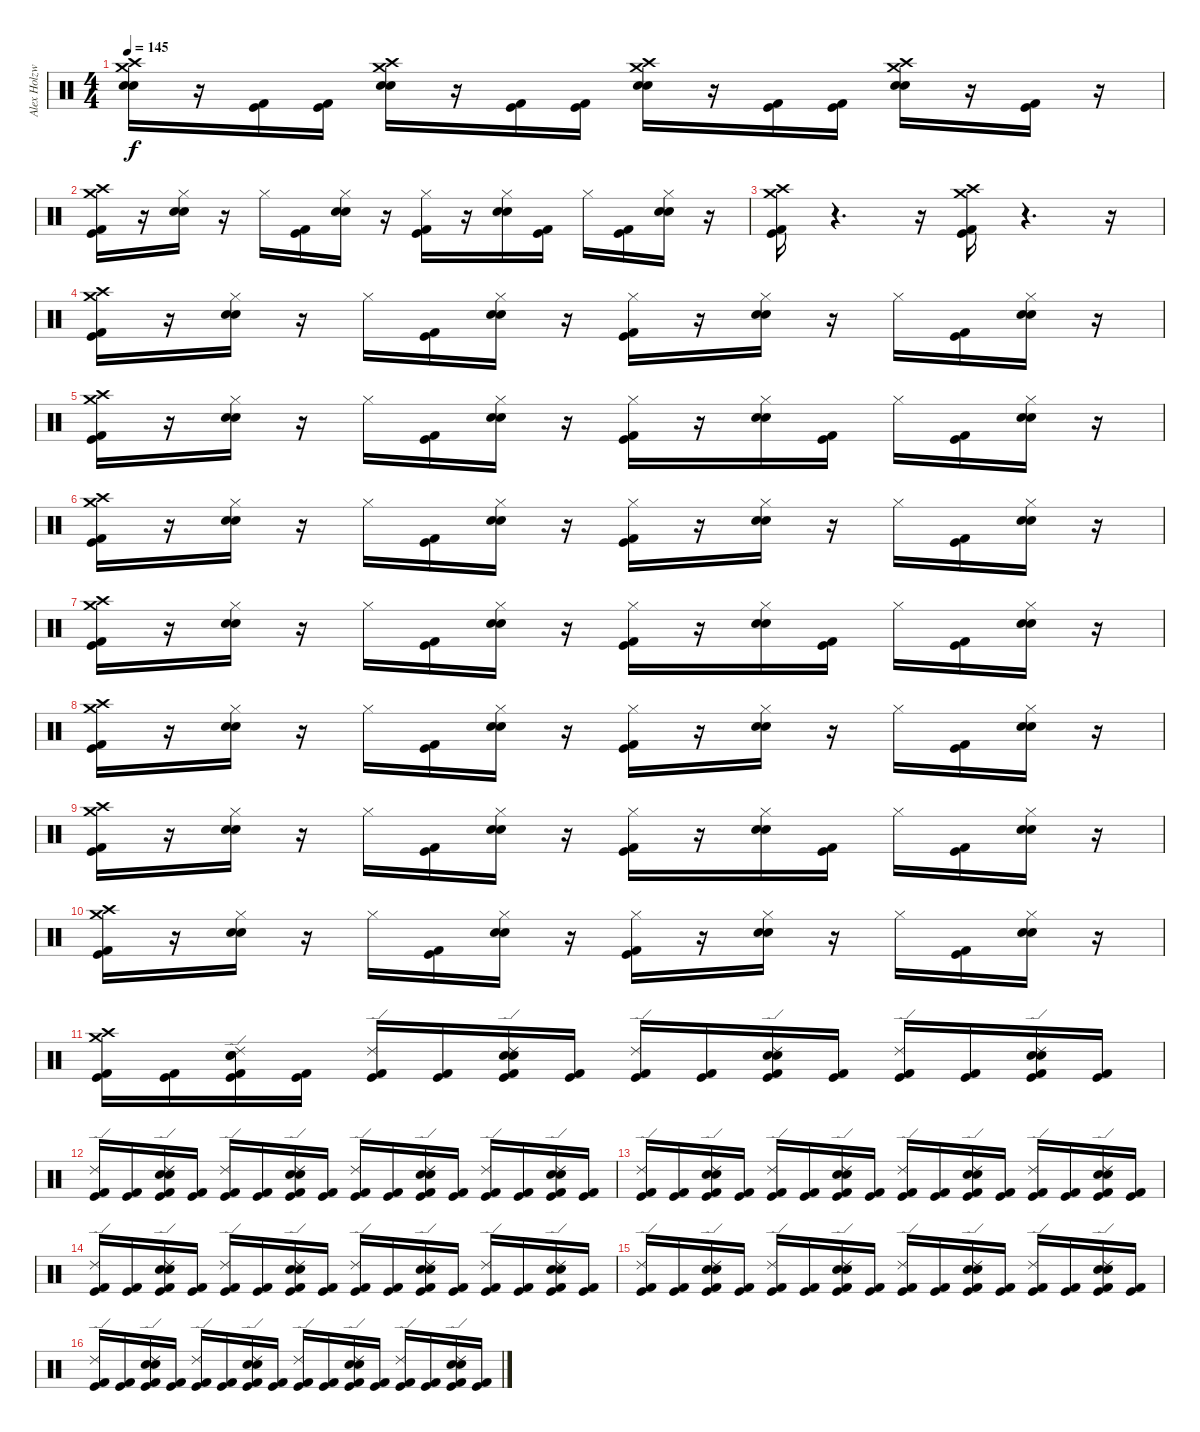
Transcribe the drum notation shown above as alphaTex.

\track ("Alex Holzwarth" "Alex Holzw") {instrument percussion}
\staff {score}
\articulation defaults
\ts (4 4)
\tempo 145
\clef neutral
\ks c
("Crash medium (hit)" "Crash high (hit)" "Electric Snare (hit)" "Snare (hit) 2").16{dy f} r.16 ("Kick (hit) 2" "Kick (hit)").16 ("Kick (hit) 2" "Kick (hit)").16 ("Crash medium (hit)" "Crash high (hit)" "Electric Snare (hit)" "Snare (hit) 2").16 r.16 ("Kick (hit) 2" "Kick (hit)").16 ("Kick (hit) 2" "Kick (hit)").16 ("Crash high (hit)" "Crash medium (hit)" "Electric Snare (hit)" "Snare (hit) 2").16 r.16 ("Kick (hit) 2" "Kick (hit)").16 ("Kick (hit) 2" "Kick (hit)").16 ("Crash high (hit)" "Crash medium (hit)" "Electric Snare (hit)" "Snare (hit) 2").16 r.16 ("Kick (hit) 2" "Kick (hit)").16 r.16 |
("Crash high (hit)" "Crash medium (hit)" "Kick (hit) 2" "Kick (hit)").16 r.16 ("Hi-Hat (closed)" "Electric Snare (hit)" "Snare (hit) 2").16 r.16 "Hi-Hat (closed)".16 ("Kick (hit) 2" "Kick (hit)").16 ("Electric Snare (hit)" "Snare (hit) 2" "Hi-Hat (closed)").16 r.16 ("Hi-Hat (closed)" "Kick (hit)" "Kick (hit) 2").16 r.16 ("Hi-Hat (closed)" "Electric Snare (hit)" "Snare (hit) 2").16 ("Kick (hit) 2" "Kick (hit)").16 "Hi-Hat (closed)".16 ("Kick (hit) 2" "Kick (hit)").16 ("Hi-Hat (closed)" "Electric Snare (hit)" "Snare (hit) 2").16 r.16 |
("Kick (hit) 2" "Kick (hit)" "Crash medium (hit)" "Crash high (hit)").16 r.4{d} r.16 ("Crash medium (hit)" "Crash high (hit)" "Kick (hit) 2" "Kick (hit)").16 r.4{d} r.16 |
("Crash high (hit)" "Crash medium (hit)" "Kick (hit) 2" "Kick (hit)").16 r.16 ("Hi-Hat (closed)" "Electric Snare (hit)" "Snare (hit) 2").16 r.16 "Hi-Hat (closed)".16 ("Kick (hit) 2" "Kick (hit)").16 ("Hi-Hat (closed)" "Electric Snare (hit)" "Snare (hit) 2").16 r.16 ("Hi-Hat (closed)" "Kick (hit) 2" "Kick (hit)").16 r.16 ("Hi-Hat (closed)" "Electric Snare (hit)" "Snare (hit) 2").16 r.16 "Hi-Hat (closed)".16 ("Kick (hit) 2" "Kick (hit)").16 ("Hi-Hat (closed)" "Electric Snare (hit)" "Snare (hit) 2").16 r.16 |
("Crash high (hit)" "Crash medium (hit)" "Kick (hit) 2" "Kick (hit)").16 r.16 ("Hi-Hat (closed)" "Electric Snare (hit)" "Snare (hit) 2").16 r.16 "Hi-Hat (closed)".16 ("Kick (hit) 2" "Kick (hit)").16 ("Hi-Hat (closed)" "Electric Snare (hit)" "Snare (hit) 2").16 r.16 ("Hi-Hat (closed)" "Kick (hit) 2" "Kick (hit)").16 r.16 ("Hi-Hat (closed)" "Electric Snare (hit)" "Snare (hit) 2").16 ("Kick (hit) 2" "Kick (hit)").16 "Hi-Hat (closed)".16 ("Kick (hit) 2" "Kick (hit)").16 ("Hi-Hat (closed)" "Electric Snare (hit)" "Snare (hit) 2").16 r.16 |
("Crash high (hit)" "Crash medium (hit)" "Kick (hit) 2" "Kick (hit)").16 r.16 ("Hi-Hat (closed)" "Electric Snare (hit)" "Snare (hit) 2").16 r.16 "Hi-Hat (closed)".16 ("Kick (hit) 2" "Kick (hit)").16 ("Hi-Hat (closed)" "Electric Snare (hit)" "Snare (hit) 2").16 r.16 ("Hi-Hat (closed)" "Kick (hit) 2" "Kick (hit)").16 r.16 ("Hi-Hat (closed)" "Electric Snare (hit)" "Snare (hit) 2").16 r.16 "Hi-Hat (closed)".16 ("Kick (hit) 2" "Kick (hit)").16 ("Hi-Hat (closed)" "Electric Snare (hit)" "Snare (hit) 2").16 r.16 |
("Crash high (hit)" "Crash medium (hit)" "Kick (hit) 2" "Kick (hit)").16 r.16 ("Hi-Hat (closed)" "Electric Snare (hit)" "Snare (hit) 2").16 r.16 "Hi-Hat (closed)".16 ("Kick (hit) 2" "Kick (hit)").16 ("Hi-Hat (closed)" "Electric Snare (hit)" "Snare (hit) 2").16 r.16 ("Hi-Hat (closed)" "Kick (hit) 2" "Kick (hit)").16 r.16 ("Hi-Hat (closed)" "Electric Snare (hit)" "Snare (hit) 2").16 ("Kick (hit) 2" "Kick (hit)").16 "Hi-Hat (closed)".16 ("Kick (hit) 2" "Kick (hit)").16 ("Hi-Hat (closed)" "Electric Snare (hit)" "Snare (hit) 2").16 r.16 |
("Crash high (hit)" "Crash medium (hit)" "Kick (hit) 2" "Kick (hit)").16 r.16 ("Hi-Hat (closed)" "Electric Snare (hit)" "Snare (hit) 2").16 r.16 "Hi-Hat (closed)".16 ("Kick (hit) 2" "Kick (hit)").16 ("Hi-Hat (closed)" "Electric Snare (hit)" "Snare (hit) 2").16 r.16 ("Hi-Hat (closed)" "Kick (hit) 2" "Kick (hit)").16 r.16 ("Hi-Hat (closed)" "Electric Snare (hit)" "Snare (hit) 2").16 r.16 "Hi-Hat (closed)".16 ("Kick (hit) 2" "Kick (hit)").16 ("Hi-Hat (closed)" "Electric Snare (hit)" "Snare (hit) 2").16 r.16 |
("Crash high (hit)" "Crash medium (hit)" "Kick (hit) 2" "Kick (hit)").16 r.16 ("Hi-Hat (closed)" "Electric Snare (hit)" "Snare (hit) 2").16 r.16 "Hi-Hat (closed)".16 ("Kick (hit) 2" "Kick (hit)").16 ("Hi-Hat (closed)" "Electric Snare (hit)" "Snare (hit) 2").16 r.16 ("Hi-Hat (closed)" "Kick (hit) 2" "Kick (hit)").16 r.16 ("Hi-Hat (closed)" "Electric Snare (hit)" "Snare (hit) 2").16 ("Kick (hit) 2" "Kick (hit)").16 "Hi-Hat (closed)".16 ("Kick (hit) 2" "Kick (hit)").16 ("Hi-Hat (closed)" "Electric Snare (hit)" "Snare (hit) 2").16 r.16 |
("Crash high (hit)" "Crash medium (hit)" "Kick (hit) 2" "Kick (hit)").16 r.16 ("Hi-Hat (closed)" "Electric Snare (hit)" "Snare (hit) 2").16 r.16 "Hi-Hat (closed)".16 ("Kick (hit) 2" "Kick (hit)").16 ("Hi-Hat (closed)" "Electric Snare (hit)" "Snare (hit) 2").16 r.16 ("Hi-Hat (closed)" "Kick (hit) 2" "Kick (hit)").16 r.16 ("Hi-Hat (closed)" "Electric Snare (hit)" "Snare (hit) 2").16 r.16 "Hi-Hat (closed)".16 ("Kick (hit) 2" "Kick (hit)").16 ("Hi-Hat (closed)" "Electric Snare (hit)" "Snare (hit) 2").16 r.16 |
("Crash high (hit)" "Crash medium (hit)" "Kick (hit) 2" "Kick (hit)").16 ("Kick (hit) 2" "Kick (hit)").16 ("Ride (edge) 2" "Electric Snare (hit)" "Snare (hit) 2" "Kick (hit) 2" "Kick (hit)").16 ("Kick (hit) 2" "Kick (hit)").16 ("Ride (edge) 2" "Kick (hit) 2" "Kick (hit)").16 ("Kick (hit) 2" "Kick (hit)").16 ("Ride (edge) 2" "Electric Snare (hit)" "Snare (hit) 2" "Kick (hit) 2" "Kick (hit)").16 ("Kick (hit) 2" "Kick (hit)").16 ("Ride (edge) 2" "Kick (hit) 2" "Kick (hit)").16 ("Kick (hit) 2" "Kick (hit)").16 ("Ride (edge) 2" "Electric Snare (hit)" "Snare (hit) 2" "Kick (hit) 2" "Kick (hit)").16 ("Kick (hit) 2" "Kick (hit)").16 ("Ride (edge) 2" "Kick (hit) 2" "Kick (hit)").16 ("Kick (hit) 2" "Kick (hit)").16 ("Ride (edge) 2" "Electric Snare (hit)" "Snare (hit) 2" "Kick (hit) 2" "Kick (hit)").16 ("Kick (hit) 2" "Kick (hit)").16 |
("Ride (edge) 2" "Kick (hit) 2" "Kick (hit)").16 ("Kick (hit) 2" "Kick (hit)").16 ("Ride (edge) 2" "Electric Snare (hit)" "Snare (hit) 2" "Kick (hit) 2" "Kick (hit)").16 ("Kick (hit) 2" "Kick (hit)").16 ("Ride (edge) 2" "Kick (hit) 2" "Kick (hit)").16 ("Kick (hit) 2" "Kick (hit)").16 ("Ride (edge) 2" "Electric Snare (hit)" "Snare (hit) 2" "Kick (hit) 2" "Kick (hit)").16 ("Kick (hit) 2" "Kick (hit)").16 ("Ride (edge) 2" "Kick (hit) 2" "Kick (hit)").16 ("Kick (hit) 2" "Kick (hit)").16 ("Ride (edge) 2" "Electric Snare (hit)" "Snare (hit) 2" "Kick (hit) 2" "Kick (hit)").16 ("Kick (hit) 2" "Kick (hit)").16 ("Ride (edge) 2" "Kick (hit) 2" "Kick (hit)").16 ("Kick (hit) 2" "Kick (hit)").16 ("Ride (edge) 2" "Electric Snare (hit)" "Snare (hit) 2" "Kick (hit) 2" "Kick (hit)").16 ("Kick (hit) 2" "Kick (hit)").16 |
("Ride (edge) 2" "Kick (hit) 2" "Kick (hit)").16 ("Kick (hit) 2" "Kick (hit)").16 ("Ride (edge) 2" "Electric Snare (hit)" "Snare (hit) 2" "Kick (hit) 2" "Kick (hit)").16 ("Kick (hit) 2" "Kick (hit)").16 ("Ride (edge) 2" "Kick (hit) 2" "Kick (hit)").16 ("Kick (hit) 2" "Kick (hit)").16 ("Ride (edge) 2" "Electric Snare (hit)" "Snare (hit) 2" "Kick (hit) 2" "Kick (hit)").16 ("Kick (hit) 2" "Kick (hit)").16 ("Ride (edge) 2" "Kick (hit) 2" "Kick (hit)").16 ("Kick (hit) 2" "Kick (hit)").16 ("Ride (edge) 2" "Electric Snare (hit)" "Snare (hit) 2" "Kick (hit) 2" "Kick (hit)").16 ("Kick (hit) 2" "Kick (hit)").16 ("Ride (edge) 2" "Kick (hit) 2" "Kick (hit)").16 ("Kick (hit) 2" "Kick (hit)").16 ("Ride (edge) 2" "Electric Snare (hit)" "Snare (hit) 2" "Kick (hit) 2" "Kick (hit)").16 ("Kick (hit) 2" "Kick (hit)").16 |
("Ride (edge) 2" "Kick (hit) 2" "Kick (hit)").16 ("Kick (hit) 2" "Kick (hit)").16 ("Ride (edge) 2" "Electric Snare (hit)" "Snare (hit) 2" "Kick (hit) 2" "Kick (hit)").16 ("Kick (hit) 2" "Kick (hit)").16 ("Ride (edge) 2" "Kick (hit) 2" "Kick (hit)").16 ("Kick (hit) 2" "Kick (hit)").16 ("Ride (edge) 2" "Electric Snare (hit)" "Snare (hit) 2" "Kick (hit) 2" "Kick (hit)").16 ("Kick (hit) 2" "Kick (hit)").16 ("Ride (edge) 2" "Kick (hit) 2" "Kick (hit)").16 ("Kick (hit) 2" "Kick (hit)").16 ("Ride (edge) 2" "Electric Snare (hit)" "Snare (hit) 2" "Kick (hit) 2" "Kick (hit)").16 ("Kick (hit) 2" "Kick (hit)").16 ("Ride (edge) 2" "Kick (hit) 2" "Kick (hit)").16 ("Kick (hit) 2" "Kick (hit)").16 ("Ride (edge) 2" "Electric Snare (hit)" "Snare (hit) 2" "Kick (hit) 2" "Kick (hit)").16 ("Kick (hit) 2" "Kick (hit)").16 |
("Ride (edge) 2" "Kick (hit) 2" "Kick (hit)").16 ("Kick (hit) 2" "Kick (hit)").16 ("Ride (edge) 2" "Electric Snare (hit)" "Snare (hit) 2" "Kick (hit) 2" "Kick (hit)").16 ("Kick (hit) 2" "Kick (hit)").16 ("Ride (edge) 2" "Kick (hit) 2" "Kick (hit)").16 ("Kick (hit) 2" "Kick (hit)").16 ("Ride (edge) 2" "Electric Snare (hit)" "Snare (hit) 2" "Kick (hit) 2" "Kick (hit)").16 ("Kick (hit) 2" "Kick (hit)").16 ("Ride (edge) 2" "Kick (hit) 2" "Kick (hit)").16 ("Kick (hit) 2" "Kick (hit)").16 ("Ride (edge) 2" "Electric Snare (hit)" "Snare (hit) 2" "Kick (hit) 2" "Kick (hit)").16 ("Kick (hit) 2" "Kick (hit)").16 ("Ride (edge) 2" "Kick (hit) 2" "Kick (hit)").16 ("Kick (hit) 2" "Kick (hit)").16 ("Ride (edge) 2" "Electric Snare (hit)" "Snare (hit) 2" "Kick (hit) 2" "Kick (hit)").16 ("Kick (hit) 2" "Kick (hit)").16 |
("Ride (edge) 2" "Kick (hit) 2" "Kick (hit)").16 ("Kick (hit) 2" "Kick (hit)").16 ("Ride (edge) 2" "Electric Snare (hit)" "Snare (hit) 2" "Kick (hit) 2" "Kick (hit)").16 ("Kick (hit) 2" "Kick (hit)").16 ("Ride (edge) 2" "Kick (hit) 2" "Kick (hit)").16 ("Kick (hit) 2" "Kick (hit)").16 ("Ride (edge) 2" "Electric Snare (hit)" "Snare (hit) 2" "Kick (hit) 2" "Kick (hit)").16 ("Kick (hit) 2" "Kick (hit)").16 ("Ride (edge) 2" "Kick (hit) 2" "Kick (hit)").16 ("Kick (hit) 2" "Kick (hit)").16 ("Ride (edge) 2" "Electric Snare (hit)" "Snare (hit) 2" "Kick (hit) 2" "Kick (hit)").16 ("Kick (hit) 2" "Kick (hit)").16 ("Ride (edge) 2" "Kick (hit) 2" "Kick (hit)").16 ("Kick (hit) 2" "Kick (hit)").16 ("Ride (edge) 2" "Electric Snare (hit)" "Snare (hit) 2" "Kick (hit) 2" "Kick (hit)").16 ("Kick (hit) 2" "Kick (hit)").16
